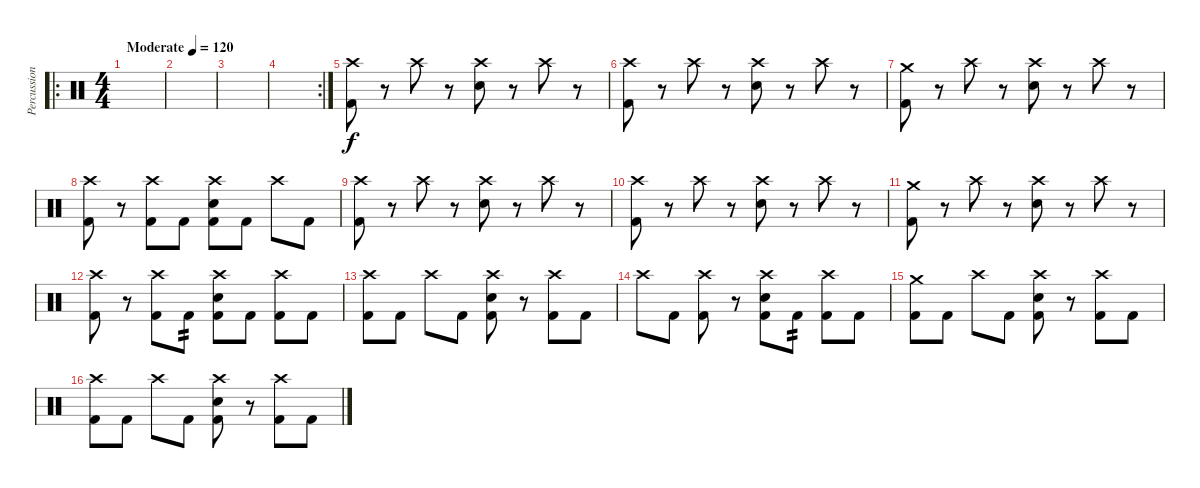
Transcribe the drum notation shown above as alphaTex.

\track ("Percussion" "Percussion") {instrument percussion}
\staff {score}
\articulation defaults
\ro
\ts (4 4)
\tempo (120 "Moderate")
\clef neutral
\ks c
|
|
|
\rc 2
|
("Crash high (hit)" "Kick (hit) 2").8 r.8 "Crash high (hit)".8 r.8 ("Crash high (hit)" "Snare (hit) 2").8 r.8 "Crash high (hit)".8 r.8 |
("Crash high (hit)" "Kick (hit) 2").8 r.8 "Crash high (hit)".8 r.8 ("Crash high (hit)" "Snare (hit) 2").8 r.8 "Crash high (hit)".8 r.8 |
("Crash medium (hit)" "Kick (hit) 2").8 r.8 "Crash high (hit)".8 r.8 ("Crash high (hit)" "Snare (hit) 2").8 r.8 "Crash high (hit)".8 r.8 |
("Crash high (hit)" "Kick (hit) 2").8 r.8 ("Crash high (hit)" "Kick (hit) 2").8 "Kick (hit) 2".8 ("Crash high (hit)" "Snare (hit) 2" "Kick (hit) 2").8 "Kick (hit) 2".8 "Crash high (hit)".8 "Kick (hit) 2".8 |
("Crash high (hit)" "Kick (hit) 2").8 r.8 "Crash high (hit)".8 r.8 ("Crash high (hit)" "Snare (hit) 2").8 r.8 "Crash high (hit)".8 r.8 |
("Crash high (hit)" "Kick (hit) 2").8 r.8 "Crash high (hit)".8 r.8 ("Crash high (hit)" "Snare (hit) 2").8 r.8 "Crash high (hit)".8 r.8 |
("Crash medium (hit)" "Kick (hit) 2").8 r.8 "Crash high (hit)".8 r.8 ("Crash high (hit)" "Snare (hit) 2").8 r.8 "Crash high (hit)".8 r.8 |
("Crash high (hit)" "Kick (hit) 2").8 r.8 ("Crash high (hit)" "Kick (hit) 2").8 "Kick (hit) 2".8{tp 2} ("Crash high (hit)" "Snare (hit) 2" "Kick (hit) 2").8 "Kick (hit) 2".8 ("Crash high (hit)" "Kick (hit) 2").8 "Kick (hit) 2".8 |
("Crash high (hit)" "Kick (hit) 2").8 "Kick (hit) 2".8 "Crash high (hit)".8 "Kick (hit) 2".8 ("Crash high (hit)" "Snare (hit) 2" "Kick (hit) 2").8 r.8 ("Crash high (hit)" "Kick (hit) 2").8 "Kick (hit) 2".8 |
"Crash high (hit)".8 "Kick (hit) 2".8 ("Crash high (hit)" "Kick (hit) 2").8 r.8 ("Crash high (hit)" "Snare (hit) 2" "Kick (hit) 2").8 "Kick (hit) 2".8{tp 2} ("Crash high (hit)" "Kick (hit) 2").8 "Kick (hit) 2".8 |
("Crash medium (hit)" "Kick (hit) 2").8 "Kick (hit) 2".8 "Crash high (hit)".8 "Kick (hit) 2".8 ("Crash high (hit)" "Snare (hit) 2" "Kick (hit) 2").8 r.8 ("Crash high (hit)" "Kick (hit) 2").8 "Kick (hit) 2".8 |
("Crash high (hit)" "Kick (hit) 2").8 "Kick (hit) 2".8 "Crash high (hit)".8 "Kick (hit) 2".8 ("Crash high (hit)" "Snare (hit) 2" "Kick (hit) 2").8 r.8 ("Crash high (hit)" "Kick (hit) 2").8 "Kick (hit) 2".8
